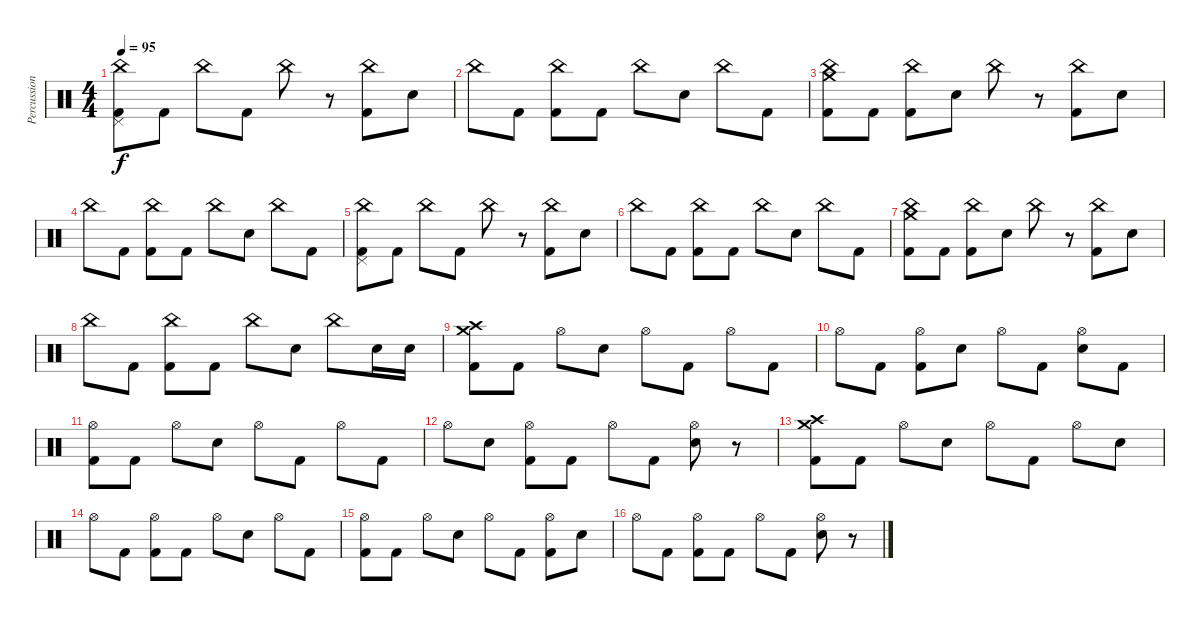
\track ("Percussion" "Percussion") {instrument percussion}
\staff {score}
\articulation defaults
\ts (4 4)
\tempo 95
\clef neutral
\ks c
("China (hit)" "Pedal Hi-Hat (hit)" "Kick (hit) 2").8{dy f} "Kick (hit) 2".8 "China (hit)".8 "Kick (hit) 2".8 "China (hit)".8 r.8 ("China (hit)" "Kick (hit) 2").8 "Electric Snare (hit)".8 |
"China (hit)".8 "Kick (hit) 2".8 ("China (hit)" "Kick (hit) 2").8 "Kick (hit) 2".8 "China (hit)".8 "Electric Snare (hit)".8 "China (hit)".8 "Kick (hit) 2".8 |
("China (hit)" "Crash medium (hit)" "Kick (hit) 2").8 "Kick (hit) 2".8 ("China (hit)" "Kick (hit) 2").8 "Electric Snare (hit)".8 "China (hit)".8 r.8 ("China (hit)" "Kick (hit) 2").8 "Electric Snare (hit)".8 |
"China (hit)".8 "Kick (hit) 2".8 ("China (hit)" "Kick (hit) 2").8 "Kick (hit) 2".8 "China (hit)".8 "Electric Snare (hit)".8 "China (hit)".8 "Kick (hit) 2".8 |
("China (hit)" "Pedal Hi-Hat (hit)" "Kick (hit) 2").8 "Kick (hit) 2".8 "China (hit)".8 "Kick (hit) 2".8 "China (hit)".8 r.8 ("China (hit)" "Kick (hit) 2").8 "Electric Snare (hit)".8 |
"China (hit)".8 "Kick (hit) 2".8 ("China (hit)" "Kick (hit) 2").8 "Kick (hit) 2".8 "China (hit)".8 "Electric Snare (hit)".8 "China (hit)".8 "Kick (hit) 2".8 |
("China (hit)" "Crash medium (hit)" "Kick (hit) 2").8 "Kick (hit) 2".8 ("China (hit)" "Kick (hit) 2").8 "Electric Snare (hit)".8 "China (hit)".8 r.8 ("China (hit)" "Kick (hit) 2").8 "Electric Snare (hit)".8 |
"China (hit)".8 "Kick (hit) 2".8 ("China (hit)" "Kick (hit) 2").8 "Kick (hit) 2".8 "China (hit)".8 "Electric Snare (hit)".8 "China (hit)".8 "Electric Snare (hit)".16 "Electric Snare (hit)".16 |
("Crash medium (hit)" "Crash high (hit)" "Kick (hit) 2").8 "Kick (hit) 2".8 "Hi-Hat (open)".8 "Electric Snare (hit)".8 "Hi-Hat (open)".8 "Kick (hit) 2".8 "Hi-Hat (open)".8 "Kick (hit) 2".8 |
"Hi-Hat (open)".8 "Kick (hit) 2".8 ("Hi-Hat (open)" "Kick (hit) 2").8 "Electric Snare (hit)".8 "Hi-Hat (open)".8 "Kick (hit) 2".8 ("Hi-Hat (open)" "Electric Snare (hit)").8 "Kick (hit) 2".8 |
("Hi-Hat (open)" "Kick (hit) 2").8 "Kick (hit) 2".8 "Hi-Hat (open)".8 "Electric Snare (hit)".8 "Hi-Hat (open)".8 "Kick (hit) 2".8 "Hi-Hat (open)".8 "Kick (hit) 2".8 |
"Hi-Hat (open)".8 "Electric Snare (hit)".8 ("Hi-Hat (open)" "Kick (hit) 2").8 "Kick (hit) 2".8 "Hi-Hat (open)".8 "Kick (hit) 2".8 ("Hi-Hat (open)" "Electric Snare (hit)").8 r.8 |
("Crash medium (hit)" "Crash high (hit)" "Kick (hit) 2").8 "Kick (hit) 2".8 "Hi-Hat (open)".8 "Electric Snare (hit)".8 "Hi-Hat (open)".8 "Kick (hit) 2".8 "Hi-Hat (open)".8 "Electric Snare (hit)".8 |
"Hi-Hat (open)".8 "Kick (hit) 2".8 ("Hi-Hat (open)" "Kick (hit) 2").8 "Kick (hit) 2".8 "Hi-Hat (open)".8 "Electric Snare (hit)".8 "Hi-Hat (open)".8 "Kick (hit) 2".8 |
("Hi-Hat (open)" "Kick (hit) 2").8 "Kick (hit) 2".8 "Hi-Hat (open)".8 "Electric Snare (hit)".8 "Hi-Hat (open)".8 "Kick (hit) 2".8 ("Hi-Hat (open)" "Kick (hit) 2").8 "Electric Snare (hit)".8 |
"Hi-Hat (open)".8 "Kick (hit) 2".8 ("Hi-Hat (open)" "Kick (hit) 2").8 "Kick (hit) 2".8 "Hi-Hat (open)".8 "Kick (hit) 2".8 ("Hi-Hat (open)" "Electric Snare (hit)").8 r.8
